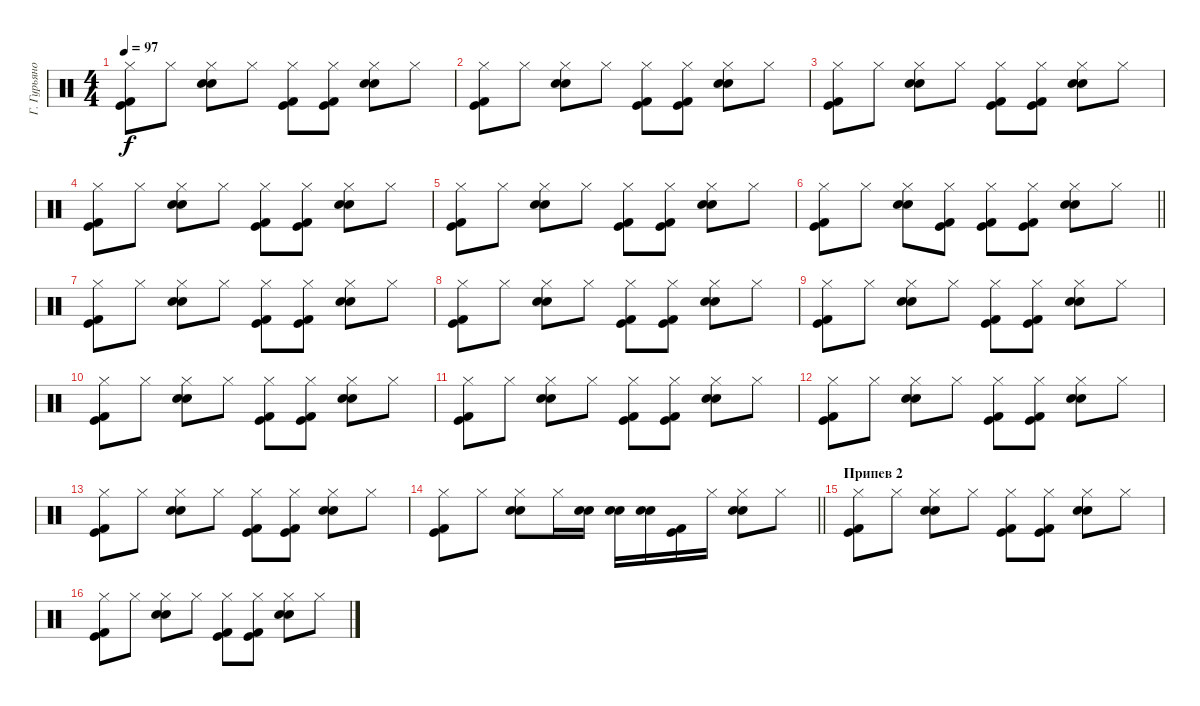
\track ("Г. Гурьянов" "Г. Гурьяно") {instrument percussion}
\staff {score}
\articulation defaults
\ts (4 4)
\tempo 97
\clef neutral
\ks c
("Kick (hit) 2" "Kick (hit)" "Hi-Hat (closed)").8{dy f} "Hi-Hat (closed)".8 ("Electric Snare (hit)" "Snare (hit) 2" "Hi-Hat (closed)").8 "Hi-Hat (closed)".8 ("Kick (hit) 2" "Kick (hit)" "Hi-Hat (closed)").8 ("Kick (hit) 2" "Kick (hit)" "Hi-Hat (closed)").8 ("Electric Snare (hit)" "Snare (hit) 2" "Hi-Hat (closed)").8 "Hi-Hat (closed)".8 |
("Kick (hit) 2" "Kick (hit)" "Hi-Hat (closed)").8 "Hi-Hat (closed)".8 ("Electric Snare (hit)" "Snare (hit) 2" "Hi-Hat (closed)").8 "Hi-Hat (closed)".8 ("Kick (hit) 2" "Kick (hit)" "Hi-Hat (closed)").8 ("Kick (hit) 2" "Kick (hit)" "Hi-Hat (closed)").8 ("Electric Snare (hit)" "Snare (hit) 2" "Hi-Hat (closed)").8 "Hi-Hat (closed)".8 |
("Kick (hit) 2" "Kick (hit)" "Hi-Hat (closed)").8 "Hi-Hat (closed)".8 ("Electric Snare (hit)" "Snare (hit) 2" "Hi-Hat (closed)").8 "Hi-Hat (closed)".8 ("Kick (hit) 2" "Kick (hit)" "Hi-Hat (closed)").8 ("Kick (hit) 2" "Kick (hit)" "Hi-Hat (closed)").8 ("Electric Snare (hit)" "Snare (hit) 2" "Hi-Hat (closed)").8 "Hi-Hat (closed)".8 |
("Kick (hit) 2" "Kick (hit)" "Hi-Hat (closed)").8 "Hi-Hat (closed)".8 ("Electric Snare (hit)" "Snare (hit) 2" "Hi-Hat (closed)").8 "Hi-Hat (closed)".8 ("Kick (hit) 2" "Kick (hit)" "Hi-Hat (closed)").8 ("Kick (hit) 2" "Kick (hit)" "Hi-Hat (closed)").8 ("Electric Snare (hit)" "Snare (hit) 2" "Hi-Hat (closed)").8 "Hi-Hat (closed)".8 |
("Kick (hit) 2" "Kick (hit)" "Hi-Hat (closed)").8 "Hi-Hat (closed)".8 ("Electric Snare (hit)" "Snare (hit) 2" "Hi-Hat (closed)").8 "Hi-Hat (closed)".8 ("Kick (hit) 2" "Kick (hit)" "Hi-Hat (closed)").8 ("Kick (hit) 2" "Kick (hit)" "Hi-Hat (closed)").8 ("Electric Snare (hit)" "Snare (hit) 2" "Hi-Hat (closed)").8 "Hi-Hat (closed)".8 |
\barLineRight lightlight
("Kick (hit) 2" "Kick (hit)" "Hi-Hat (closed)").8 "Hi-Hat (closed)".8 ("Electric Snare (hit)" "Snare (hit) 2" "Hi-Hat (closed)").8 ("Kick (hit) 2" "Kick (hit)" "Hi-Hat (closed)").8 ("Kick (hit) 2" "Kick (hit)" "Hi-Hat (closed)").8 ("Kick (hit) 2" "Kick (hit)" "Hi-Hat (closed)").8 ("Electric Snare (hit)" "Snare (hit) 2" "Hi-Hat (closed)").8 "Hi-Hat (closed)".8 |
("Kick (hit) 2" "Kick (hit)" "Hi-Hat (closed)").8 "Hi-Hat (closed)".8 ("Electric Snare (hit)" "Snare (hit) 2" "Hi-Hat (closed)").8 "Hi-Hat (closed)".8 ("Kick (hit) 2" "Kick (hit)" "Hi-Hat (closed)").8 ("Kick (hit) 2" "Kick (hit)" "Hi-Hat (closed)").8 ("Electric Snare (hit)" "Snare (hit) 2" "Hi-Hat (closed)").8 "Hi-Hat (closed)".8 |
("Kick (hit) 2" "Kick (hit)" "Hi-Hat (closed)").8 "Hi-Hat (closed)".8 ("Electric Snare (hit)" "Snare (hit) 2" "Hi-Hat (closed)").8 "Hi-Hat (closed)".8 ("Kick (hit) 2" "Kick (hit)" "Hi-Hat (closed)").8 ("Kick (hit) 2" "Kick (hit)" "Hi-Hat (closed)").8 ("Electric Snare (hit)" "Snare (hit) 2" "Hi-Hat (closed)").8 "Hi-Hat (closed)".8 |
("Kick (hit) 2" "Kick (hit)" "Hi-Hat (closed)").8 "Hi-Hat (closed)".8 ("Electric Snare (hit)" "Snare (hit) 2" "Hi-Hat (closed)").8 "Hi-Hat (closed)".8 ("Kick (hit) 2" "Kick (hit)" "Hi-Hat (closed)").8 ("Kick (hit) 2" "Kick (hit)" "Hi-Hat (closed)").8 ("Electric Snare (hit)" "Snare (hit) 2" "Hi-Hat (closed)").8 "Hi-Hat (closed)".8 |
("Kick (hit) 2" "Kick (hit)" "Hi-Hat (closed)").8 "Hi-Hat (closed)".8 ("Electric Snare (hit)" "Snare (hit) 2" "Hi-Hat (closed)").8 "Hi-Hat (closed)".8 ("Kick (hit) 2" "Kick (hit)" "Hi-Hat (closed)").8 ("Kick (hit) 2" "Kick (hit)" "Hi-Hat (closed)").8 ("Electric Snare (hit)" "Snare (hit) 2" "Hi-Hat (closed)").8 "Hi-Hat (closed)".8 |
("Kick (hit) 2" "Kick (hit)" "Hi-Hat (closed)").8 "Hi-Hat (closed)".8 ("Electric Snare (hit)" "Snare (hit) 2" "Hi-Hat (closed)").8 "Hi-Hat (closed)".8 ("Kick (hit) 2" "Kick (hit)" "Hi-Hat (closed)").8 ("Kick (hit) 2" "Kick (hit)" "Hi-Hat (closed)").8 ("Electric Snare (hit)" "Snare (hit) 2" "Hi-Hat (closed)").8 "Hi-Hat (closed)".8 |
("Kick (hit) 2" "Kick (hit)" "Hi-Hat (closed)").8 "Hi-Hat (closed)".8 ("Electric Snare (hit)" "Snare (hit) 2" "Hi-Hat (closed)").8 "Hi-Hat (closed)".8 ("Kick (hit) 2" "Kick (hit)" "Hi-Hat (closed)").8 ("Kick (hit) 2" "Kick (hit)" "Hi-Hat (closed)").8 ("Electric Snare (hit)" "Snare (hit) 2" "Hi-Hat (closed)").8 "Hi-Hat (closed)".8 |
("Kick (hit) 2" "Kick (hit)" "Hi-Hat (closed)").8 "Hi-Hat (closed)".8 ("Electric Snare (hit)" "Snare (hit) 2" "Hi-Hat (closed)").8 "Hi-Hat (closed)".8 ("Kick (hit) 2" "Kick (hit)" "Hi-Hat (closed)").8 ("Kick (hit) 2" "Kick (hit)" "Hi-Hat (closed)").8 ("Electric Snare (hit)" "Snare (hit) 2" "Hi-Hat (closed)").8 "Hi-Hat (closed)".8 |
\barLineRight lightlight
("Kick (hit) 2" "Kick (hit)" "Hi-Hat (closed)").8 "Hi-Hat (closed)".8 ("Electric Snare (hit)" "Snare (hit) 2" "Hi-Hat (closed)").8 "Hi-Hat (closed)".16 ("Electric Snare (hit)" "Snare (hit) 2").16 ("Electric Snare (hit)" "Snare (hit) 2").16 ("Electric Snare (hit)" "Snare (hit) 2").16 ("Kick (hit) 2" "Kick (hit)").16 "Hi-Hat (closed)".16 ("Electric Snare (hit)" "Snare (hit) 2" "Hi-Hat (closed)").8 "Hi-Hat (closed)".8 |
\section ("" "Припев 2")
("Kick (hit) 2" "Kick (hit)" "Hi-Hat (closed)").8 "Hi-Hat (closed)".8 ("Electric Snare (hit)" "Snare (hit) 2" "Hi-Hat (closed)").8 "Hi-Hat (closed)".8 ("Kick (hit) 2" "Kick (hit)" "Hi-Hat (closed)").8 ("Kick (hit) 2" "Kick (hit)" "Hi-Hat (closed)").8 ("Electric Snare (hit)" "Snare (hit) 2" "Hi-Hat (closed)").8 "Hi-Hat (closed)".8 |
("Kick (hit) 2" "Kick (hit)" "Hi-Hat (closed)").8 "Hi-Hat (closed)".8 ("Electric Snare (hit)" "Snare (hit) 2" "Hi-Hat (closed)").8 "Hi-Hat (closed)".8 ("Kick (hit) 2" "Kick (hit)" "Hi-Hat (closed)").8 ("Kick (hit) 2" "Kick (hit)" "Hi-Hat (closed)").8 ("Electric Snare (hit)" "Snare (hit) 2" "Hi-Hat (closed)").8 "Hi-Hat (closed)".8
